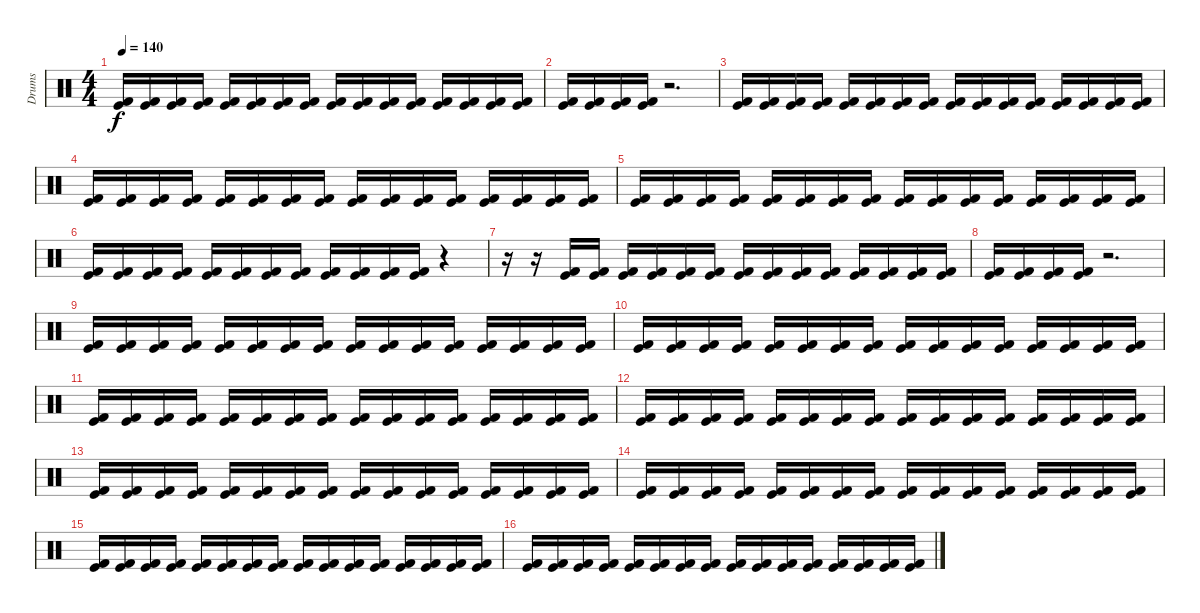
\track ("Drums" "Drums") {instrument percussion}
\staff {score}
\articulation defaults
\ts (4 4)
\tempo 140
\clef neutral
\ks c
("Kick (hit) 2" "Kick (hit)").16{dy f} ("Kick (hit) 2" "Kick (hit)").16 ("Kick (hit) 2" "Kick (hit)").16 ("Kick (hit) 2" "Kick (hit)").16 ("Kick (hit) 2" "Kick (hit)").16 ("Kick (hit) 2" "Kick (hit)").16 ("Kick (hit) 2" "Kick (hit)").16 ("Kick (hit) 2" "Kick (hit)").16 ("Kick (hit) 2" "Kick (hit)").16 ("Kick (hit) 2" "Kick (hit)").16 ("Kick (hit) 2" "Kick (hit)").16 ("Kick (hit) 2" "Kick (hit)").16 ("Kick (hit) 2" "Kick (hit)").16 ("Kick (hit) 2" "Kick (hit)").16 ("Kick (hit) 2" "Kick (hit)").16 ("Kick (hit) 2" "Kick (hit)").16 |
("Kick (hit) 2" "Kick (hit)").16 ("Kick (hit) 2" "Kick (hit)").16 ("Kick (hit) 2" "Kick (hit)").16 ("Kick (hit) 2" "Kick (hit)").16 r.2{d} |
("Kick (hit) 2" "Kick (hit)").16 ("Kick (hit) 2" "Kick (hit)").16 ("Kick (hit) 2" "Kick (hit)").16 ("Kick (hit) 2" "Kick (hit)").16 ("Kick (hit) 2" "Kick (hit)").16 ("Kick (hit) 2" "Kick (hit)").16 ("Kick (hit) 2" "Kick (hit)").16 ("Kick (hit) 2" "Kick (hit)").16 ("Kick (hit) 2" "Kick (hit)").16 ("Kick (hit) 2" "Kick (hit)").16 ("Kick (hit) 2" "Kick (hit)").16 ("Kick (hit) 2" "Kick (hit)").16 ("Kick (hit) 2" "Kick (hit)").16 ("Kick (hit) 2" "Kick (hit)").16 ("Kick (hit) 2" "Kick (hit)").16 ("Kick (hit) 2" "Kick (hit)").16 |
("Kick (hit) 2" "Kick (hit)").16 ("Kick (hit) 2" "Kick (hit)").16 ("Kick (hit) 2" "Kick (hit)").16 ("Kick (hit) 2" "Kick (hit)").16 ("Kick (hit) 2" "Kick (hit)").16 ("Kick (hit) 2" "Kick (hit)").16 ("Kick (hit) 2" "Kick (hit)").16 ("Kick (hit) 2" "Kick (hit)").16 ("Kick (hit) 2" "Kick (hit)").16 ("Kick (hit) 2" "Kick (hit)").16 ("Kick (hit) 2" "Kick (hit)").16 ("Kick (hit) 2" "Kick (hit)").16 ("Kick (hit) 2" "Kick (hit)").16 ("Kick (hit) 2" "Kick (hit)").16 ("Kick (hit) 2" "Kick (hit)").16 ("Kick (hit) 2" "Kick (hit)").16 |
("Kick (hit) 2" "Kick (hit)").16 ("Kick (hit) 2" "Kick (hit)").16 ("Kick (hit) 2" "Kick (hit)").16 ("Kick (hit) 2" "Kick (hit)").16 ("Kick (hit) 2" "Kick (hit)").16 ("Kick (hit) 2" "Kick (hit)").16 ("Kick (hit) 2" "Kick (hit)").16 ("Kick (hit) 2" "Kick (hit)").16 ("Kick (hit) 2" "Kick (hit)").16 ("Kick (hit) 2" "Kick (hit)").16 ("Kick (hit) 2" "Kick (hit)").16 ("Kick (hit) 2" "Kick (hit)").16 ("Kick (hit) 2" "Kick (hit)").16 ("Kick (hit) 2" "Kick (hit)").16 ("Kick (hit) 2" "Kick (hit)").16 ("Kick (hit) 2" "Kick (hit)").16 |
("Kick (hit) 2" "Kick (hit)").16 ("Kick (hit) 2" "Kick (hit)").16 ("Kick (hit) 2" "Kick (hit)").16 ("Kick (hit) 2" "Kick (hit)").16 ("Kick (hit) 2" "Kick (hit)").16 ("Kick (hit) 2" "Kick (hit)").16 ("Kick (hit) 2" "Kick (hit)").16 ("Kick (hit) 2" "Kick (hit)").16 ("Kick (hit) 2" "Kick (hit)").16 ("Kick (hit) 2" "Kick (hit)").16 ("Kick (hit) 2" "Kick (hit)").16 ("Kick (hit) 2" "Kick (hit)").16 r.4 |
r.16 r.16 ("Kick (hit) 2" "Kick (hit)").16 ("Kick (hit) 2" "Kick (hit)").16 ("Kick (hit) 2" "Kick (hit)").16 ("Kick (hit) 2" "Kick (hit)").16 ("Kick (hit) 2" "Kick (hit)").16 ("Kick (hit) 2" "Kick (hit)").16 ("Kick (hit) 2" "Kick (hit)").16 ("Kick (hit) 2" "Kick (hit)").16 ("Kick (hit) 2" "Kick (hit)").16 ("Kick (hit) 2" "Kick (hit)").16 ("Kick (hit) 2" "Kick (hit)").16 ("Kick (hit) 2" "Kick (hit)").16 ("Kick (hit) 2" "Kick (hit)").16 ("Kick (hit) 2" "Kick (hit)").16 |
("Kick (hit) 2" "Kick (hit)").16 ("Kick (hit) 2" "Kick (hit)").16 ("Kick (hit) 2" "Kick (hit)").16 ("Kick (hit) 2" "Kick (hit)").16 r.2{d} |
("Kick (hit) 2" "Kick (hit)").16 ("Kick (hit) 2" "Kick (hit)").16 ("Kick (hit) 2" "Kick (hit)").16 ("Kick (hit) 2" "Kick (hit)").16 ("Kick (hit) 2" "Kick (hit)").16 ("Kick (hit) 2" "Kick (hit)").16 ("Kick (hit) 2" "Kick (hit)").16 ("Kick (hit) 2" "Kick (hit)").16 ("Kick (hit) 2" "Kick (hit)").16 ("Kick (hit) 2" "Kick (hit)").16 ("Kick (hit) 2" "Kick (hit)").16 ("Kick (hit) 2" "Kick (hit)").16 ("Kick (hit) 2" "Kick (hit)").16 ("Kick (hit) 2" "Kick (hit)").16 ("Kick (hit) 2" "Kick (hit)").16 ("Kick (hit) 2" "Kick (hit)").16 |
("Kick (hit) 2" "Kick (hit)").16 ("Kick (hit) 2" "Kick (hit)").16 ("Kick (hit) 2" "Kick (hit)").16 ("Kick (hit) 2" "Kick (hit)").16 ("Kick (hit) 2" "Kick (hit)").16 ("Kick (hit) 2" "Kick (hit)").16 ("Kick (hit) 2" "Kick (hit)").16 ("Kick (hit) 2" "Kick (hit)").16 ("Kick (hit) 2" "Kick (hit)").16 ("Kick (hit) 2" "Kick (hit)").16 ("Kick (hit) 2" "Kick (hit)").16 ("Kick (hit) 2" "Kick (hit)").16 ("Kick (hit) 2" "Kick (hit)").16 ("Kick (hit) 2" "Kick (hit)").16 ("Kick (hit) 2" "Kick (hit)").16 ("Kick (hit) 2" "Kick (hit)").16 |
("Kick (hit) 2" "Kick (hit)").16 ("Kick (hit) 2" "Kick (hit)").16 ("Kick (hit) 2" "Kick (hit)").16 ("Kick (hit) 2" "Kick (hit)").16 ("Kick (hit) 2" "Kick (hit)").16 ("Kick (hit) 2" "Kick (hit)").16 ("Kick (hit) 2" "Kick (hit)").16 ("Kick (hit) 2" "Kick (hit)").16 ("Kick (hit) 2" "Kick (hit)").16 ("Kick (hit) 2" "Kick (hit)").16 ("Kick (hit) 2" "Kick (hit)").16 ("Kick (hit) 2" "Kick (hit)").16 ("Kick (hit) 2" "Kick (hit)").16 ("Kick (hit) 2" "Kick (hit)").16 ("Kick (hit) 2" "Kick (hit)").16 ("Kick (hit) 2" "Kick (hit)").16 |
("Kick (hit) 2" "Kick (hit)").16 ("Kick (hit) 2" "Kick (hit)").16 ("Kick (hit) 2" "Kick (hit)").16 ("Kick (hit) 2" "Kick (hit)").16 ("Kick (hit) 2" "Kick (hit)").16 ("Kick (hit) 2" "Kick (hit)").16 ("Kick (hit) 2" "Kick (hit)").16 ("Kick (hit) 2" "Kick (hit)").16 ("Kick (hit) 2" "Kick (hit)").16 ("Kick (hit) 2" "Kick (hit)").16 ("Kick (hit) 2" "Kick (hit)").16 ("Kick (hit) 2" "Kick (hit)").16 ("Kick (hit) 2" "Kick (hit)").16 ("Kick (hit) 2" "Kick (hit)").16 ("Kick (hit) 2" "Kick (hit)").16 ("Kick (hit) 2" "Kick (hit)").16 |
("Kick (hit) 2" "Kick (hit)").16 ("Kick (hit) 2" "Kick (hit)").16 ("Kick (hit) 2" "Kick (hit)").16 ("Kick (hit) 2" "Kick (hit)").16 ("Kick (hit) 2" "Kick (hit)").16 ("Kick (hit) 2" "Kick (hit)").16 ("Kick (hit) 2" "Kick (hit)").16 ("Kick (hit) 2" "Kick (hit)").16 ("Kick (hit) 2" "Kick (hit)").16 ("Kick (hit) 2" "Kick (hit)").16 ("Kick (hit) 2" "Kick (hit)").16 ("Kick (hit) 2" "Kick (hit)").16 ("Kick (hit) 2" "Kick (hit)").16 ("Kick (hit) 2" "Kick (hit)").16 ("Kick (hit) 2" "Kick (hit)").16 ("Kick (hit) 2" "Kick (hit)").16 |
("Kick (hit) 2" "Kick (hit)").16 ("Kick (hit) 2" "Kick (hit)").16 ("Kick (hit) 2" "Kick (hit)").16 ("Kick (hit) 2" "Kick (hit)").16 ("Kick (hit) 2" "Kick (hit)").16 ("Kick (hit) 2" "Kick (hit)").16 ("Kick (hit) 2" "Kick (hit)").16 ("Kick (hit) 2" "Kick (hit)").16 ("Kick (hit) 2" "Kick (hit)").16 ("Kick (hit) 2" "Kick (hit)").16 ("Kick (hit) 2" "Kick (hit)").16 ("Kick (hit) 2" "Kick (hit)").16 ("Kick (hit) 2" "Kick (hit)").16 ("Kick (hit) 2" "Kick (hit)").16 ("Kick (hit) 2" "Kick (hit)").16 ("Kick (hit) 2" "Kick (hit)").16 |
("Kick (hit) 2" "Kick (hit)").16 ("Kick (hit) 2" "Kick (hit)").16 ("Kick (hit) 2" "Kick (hit)").16 ("Kick (hit) 2" "Kick (hit)").16 ("Kick (hit) 2" "Kick (hit)").16 ("Kick (hit) 2" "Kick (hit)").16 ("Kick (hit) 2" "Kick (hit)").16 ("Kick (hit) 2" "Kick (hit)").16 ("Kick (hit) 2" "Kick (hit)").16 ("Kick (hit) 2" "Kick (hit)").16 ("Kick (hit) 2" "Kick (hit)").16 ("Kick (hit) 2" "Kick (hit)").16 ("Kick (hit) 2" "Kick (hit)").16 ("Kick (hit) 2" "Kick (hit)").16 ("Kick (hit) 2" "Kick (hit)").16 ("Kick (hit) 2" "Kick (hit)").16 |
("Kick (hit) 2" "Kick (hit)").16 ("Kick (hit) 2" "Kick (hit)").16 ("Kick (hit) 2" "Kick (hit)").16 ("Kick (hit) 2" "Kick (hit)").16 ("Kick (hit) 2" "Kick (hit)").16 ("Kick (hit) 2" "Kick (hit)").16 ("Kick (hit) 2" "Kick (hit)").16 ("Kick (hit) 2" "Kick (hit)").16 ("Kick (hit) 2" "Kick (hit)").16 ("Kick (hit) 2" "Kick (hit)").16 ("Kick (hit) 2" "Kick (hit)").16 ("Kick (hit) 2" "Kick (hit)").16 ("Kick (hit) 2" "Kick (hit)").16 ("Kick (hit) 2" "Kick (hit)").16 ("Kick (hit) 2" "Kick (hit)").16 ("Kick (hit) 2" "Kick (hit)").16
